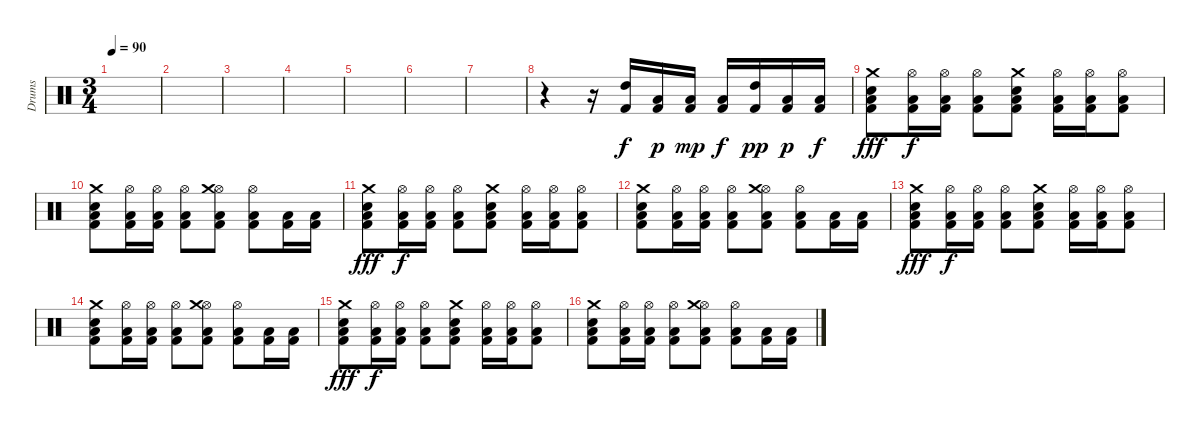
\track ("Drums" "Drums") {instrument percussion}
\staff {score}
\articulation defaults
\ts (3 4)
\tempo 90
\clef neutral
\ks c
|
|
|
|
|
|
|
r.4 r.16 ("Kick (hit) 2" "High Tom (hit)").16{dy f} ("Kick (hit) 2" "Low Tom (hit)").16{dy p} ("Kick (hit) 2" "Low Floor Tom (hit)").16{dy mp} ("Kick (hit) 2" "Low Floor Tom (hit)").16{dy f} ("Kick (hit) 2" "High Tom (hit)").16{dy pp} ("Kick (hit) 2" "Low Tom (hit)").16{dy p} ("Kick (hit) 2" "Low Floor Tom (hit)").16{dy f} |
("Kick (hit) 2" "Low Floor Tom (hit)" "Electric Snare (hit)" "Crash medium (hit)").8{dy fff} ("Kick (hit) 2" "Low Floor Tom (hit)" "Hi-Hat (open)").16{dy f} ("Kick (hit) 2" "Low Floor Tom (hit)" "Hi-Hat (open)").16 ("Kick (hit) 2" "Low Floor Tom (hit)" "Hi-Hat (open)").8 ("Kick (hit) 2" "Low Floor Tom (hit)" "Electric Snare (hit)" "Crash medium (hit)").8 ("Kick (hit) 2" "Low Floor Tom (hit)" "Hi-Hat (open)").16 ("Kick (hit) 2" "Low Floor Tom (hit)" "Hi-Hat (open)").16 ("Kick (hit) 2" "Low Floor Tom (hit)" "Hi-Hat (open)").8 |
("Kick (hit) 2" "Low Floor Tom (hit)" "Electric Snare (hit)" "Crash medium (hit)").8 ("Kick (hit) 2" "Low Floor Tom (hit)" "Hi-Hat (open)").16 ("Kick (hit) 2" "Low Floor Tom (hit)" "Hi-Hat (open)").16 ("Kick (hit) 2" "Low Floor Tom (hit)" "Hi-Hat (open)").8 ("Kick (hit) 2" "Low Floor Tom (hit)" "Hi-Hat (open)" "Crash medium (hit)").8 ("Kick (hit) 2" "Low Floor Tom (hit)" "Hi-Hat (open)").8 ("Kick (hit) 2" "Low Floor Tom (hit)").16 ("Kick (hit) 2" "Low Floor Tom (hit)").16 |
("Kick (hit) 2" "Low Floor Tom (hit)" "Electric Snare (hit)" "Crash medium (hit)").8{dy fff} ("Kick (hit) 2" "Low Floor Tom (hit)" "Hi-Hat (open)").16{dy f} ("Kick (hit) 2" "Low Floor Tom (hit)" "Hi-Hat (open)").16 ("Kick (hit) 2" "Low Floor Tom (hit)" "Hi-Hat (open)").8 ("Kick (hit) 2" "Low Floor Tom (hit)" "Electric Snare (hit)" "Crash medium (hit)").8 ("Kick (hit) 2" "Low Floor Tom (hit)" "Hi-Hat (open)").16 ("Kick (hit) 2" "Low Floor Tom (hit)" "Hi-Hat (open)").16 ("Kick (hit) 2" "Low Floor Tom (hit)" "Hi-Hat (open)").8 |
("Kick (hit) 2" "Low Floor Tom (hit)" "Electric Snare (hit)" "Crash medium (hit)").8 ("Kick (hit) 2" "Low Floor Tom (hit)" "Hi-Hat (open)").16 ("Kick (hit) 2" "Low Floor Tom (hit)" "Hi-Hat (open)").16 ("Kick (hit) 2" "Low Floor Tom (hit)" "Hi-Hat (open)").8 ("Kick (hit) 2" "Low Floor Tom (hit)" "Hi-Hat (open)" "Crash medium (hit)").8 ("Kick (hit) 2" "Low Floor Tom (hit)" "Hi-Hat (open)").8 ("Kick (hit) 2" "Low Floor Tom (hit)").16 ("Kick (hit) 2" "Low Floor Tom (hit)").16 |
("Kick (hit) 2" "Low Floor Tom (hit)" "Electric Snare (hit)" "Crash medium (hit)").8{dy fff} ("Kick (hit) 2" "Low Floor Tom (hit)" "Hi-Hat (open)").16{dy f} ("Kick (hit) 2" "Low Floor Tom (hit)" "Hi-Hat (open)").16 ("Kick (hit) 2" "Low Floor Tom (hit)" "Hi-Hat (open)").8 ("Kick (hit) 2" "Low Floor Tom (hit)" "Electric Snare (hit)" "Crash medium (hit)").8 ("Kick (hit) 2" "Low Floor Tom (hit)" "Hi-Hat (open)").16 ("Kick (hit) 2" "Low Floor Tom (hit)" "Hi-Hat (open)").16 ("Kick (hit) 2" "Low Floor Tom (hit)" "Hi-Hat (open)").8 |
("Kick (hit) 2" "Low Floor Tom (hit)" "Electric Snare (hit)" "Crash medium (hit)").8 ("Kick (hit) 2" "Low Floor Tom (hit)" "Hi-Hat (open)").16 ("Kick (hit) 2" "Low Floor Tom (hit)" "Hi-Hat (open)").16 ("Kick (hit) 2" "Low Floor Tom (hit)" "Hi-Hat (open)").8 ("Kick (hit) 2" "Low Floor Tom (hit)" "Hi-Hat (open)" "Crash medium (hit)").8 ("Kick (hit) 2" "Low Floor Tom (hit)" "Hi-Hat (open)").8 ("Kick (hit) 2" "Low Floor Tom (hit)").16 ("Kick (hit) 2" "Low Floor Tom (hit)").16 |
("Kick (hit) 2" "Low Floor Tom (hit)" "Electric Snare (hit)" "Crash medium (hit)").8{dy fff} ("Kick (hit) 2" "Low Floor Tom (hit)" "Hi-Hat (open)").16{dy f} ("Kick (hit) 2" "Low Floor Tom (hit)" "Hi-Hat (open)").16 ("Kick (hit) 2" "Low Floor Tom (hit)" "Hi-Hat (open)").8 ("Kick (hit) 2" "Low Floor Tom (hit)" "Electric Snare (hit)" "Crash medium (hit)").8 ("Kick (hit) 2" "Low Floor Tom (hit)" "Hi-Hat (open)").16 ("Kick (hit) 2" "Low Floor Tom (hit)" "Hi-Hat (open)").16 ("Kick (hit) 2" "Low Floor Tom (hit)" "Hi-Hat (open)").8 |
("Kick (hit) 2" "Low Floor Tom (hit)" "Electric Snare (hit)" "Crash medium (hit)").8 ("Kick (hit) 2" "Low Floor Tom (hit)" "Hi-Hat (open)").16 ("Kick (hit) 2" "Low Floor Tom (hit)" "Hi-Hat (open)").16 ("Kick (hit) 2" "Low Floor Tom (hit)" "Hi-Hat (open)").8 ("Kick (hit) 2" "Low Floor Tom (hit)" "Hi-Hat (open)" "Crash medium (hit)").8 ("Kick (hit) 2" "Low Floor Tom (hit)" "Hi-Hat (open)").8 ("Kick (hit) 2" "Low Floor Tom (hit)").16 ("Kick (hit) 2" "Low Floor Tom (hit)").16
